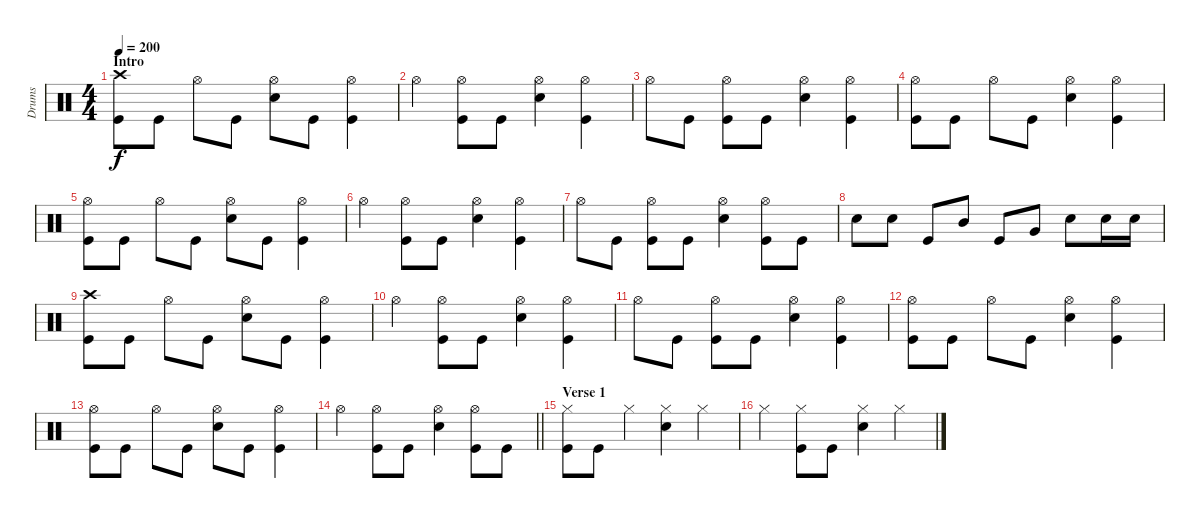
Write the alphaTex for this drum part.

\track ("Drums" "Drums") {instrument percussion}
\staff {score}
\articulation defaults
\ts (4 4)
\section ("" "Intro")
\tempo 200
\clef neutral
\ks c
("Crash high (hit)" "Kick (hit)").8{dy f} "Kick (hit)".8 "Hi-Hat (open)".8 "Kick (hit)".8 ("Snare (hit) 2" "Hi-Hat (open)").8 "Kick (hit)".8 ("Hi-Hat (open)" "Kick (hit)").4 |
"Hi-Hat (open)".4 ("Hi-Hat (open)" "Kick (hit)").8 "Kick (hit)".8 ("Snare (hit) 2" "Hi-Hat (open)").4 ("Hi-Hat (open)" "Kick (hit)").4 |
"Hi-Hat (open)".8 "Kick (hit)".8 ("Hi-Hat (open)" "Kick (hit)").8 "Kick (hit)".8 ("Hi-Hat (open)" "Snare (hit) 2").4 ("Kick (hit)" "Hi-Hat (open)").4 |
("Hi-Hat (open)" "Kick (hit)").8 "Kick (hit)".8 "Hi-Hat (open)".8 "Kick (hit)".8 ("Snare (hit) 2" "Hi-Hat (open)").4 ("Hi-Hat (open)" "Kick (hit)").4 |
("Hi-Hat (open)" "Kick (hit)").8 "Kick (hit)".8 "Hi-Hat (open)".8 "Kick (hit)".8 ("Snare (hit) 2" "Hi-Hat (open)").8 "Kick (hit)".8 ("Hi-Hat (open)" "Kick (hit)").4 |
"Hi-Hat (open)".4 ("Hi-Hat (open)" "Kick (hit)").8 "Kick (hit)".8 ("Snare (hit) 2" "Hi-Hat (open)").4 ("Hi-Hat (open)" "Kick (hit)").4 |
"Hi-Hat (open)".8 "Kick (hit)".8 ("Hi-Hat (open)" "Kick (hit)").8 "Kick (hit)".8 ("Hi-Hat (open)" "Snare (hit) 2").4 ("Kick (hit)" "Hi-Hat (open)").8 "Kick (hit)".8 |
"Snare (hit) 2".8 "Snare (hit) 2".8 "Kick (hit)".8 "Mid Tom (hit)".8 "Kick (hit)".8 "Very Low Tom (hit)".8 "Snare (hit) 2".8 "Snare (hit) 2".16 "Snare (hit) 2".16 |
("Crash high (hit)" "Kick (hit)").8 "Kick (hit)".8 "Hi-Hat (open)".8 "Kick (hit)".8 ("Snare (hit) 2" "Hi-Hat (open)").8 "Kick (hit)".8 ("Hi-Hat (open)" "Kick (hit)").4 |
"Hi-Hat (open)".4 ("Hi-Hat (open)" "Kick (hit)").8 "Kick (hit)".8 ("Snare (hit) 2" "Hi-Hat (open)").4 ("Hi-Hat (open)" "Kick (hit)").4 |
"Hi-Hat (open)".8 "Kick (hit)".8 ("Hi-Hat (open)" "Kick (hit)").8 "Kick (hit)".8 ("Hi-Hat (open)" "Snare (hit) 2").4 ("Kick (hit)" "Hi-Hat (open)").4 |
("Hi-Hat (open)" "Kick (hit)").8 "Kick (hit)".8 "Hi-Hat (open)".8 "Kick (hit)".8 ("Snare (hit) 2" "Hi-Hat (open)").4 ("Hi-Hat (open)" "Kick (hit)").4 |
("Hi-Hat (open)" "Kick (hit)").8 "Kick (hit)".8 "Hi-Hat (open)".8 "Kick (hit)".8 ("Snare (hit) 2" "Hi-Hat (open)").8 "Kick (hit)".8 ("Hi-Hat (open)" "Kick (hit)").4 |
\barLineRight lightlight "Hi-Hat (open)".4
("Hi-Hat (open)" "Kick (hit)").8 "Kick (hit)".8 ("Snare (hit) 2" "Hi-Hat (open)").4 ("Hi-Hat (open)" "Kick (hit)").8 "Kick (hit)".8 |
\section ("" "Verse 1")
("Hi-Hat (closed)" "Kick (hit)").8 "Kick (hit)".8 "Hi-Hat (closed)".4 ("Hi-Hat (closed)" "Snare (hit) 2").4 "Hi-Hat (closed)".4 |
"Hi-Hat (closed)".4 ("Kick (hit)" "Hi-Hat (closed)").8 "Kick (hit)".8 ("Snare (hit) 2" "Hi-Hat (closed)").4 "Hi-Hat (closed)".4
